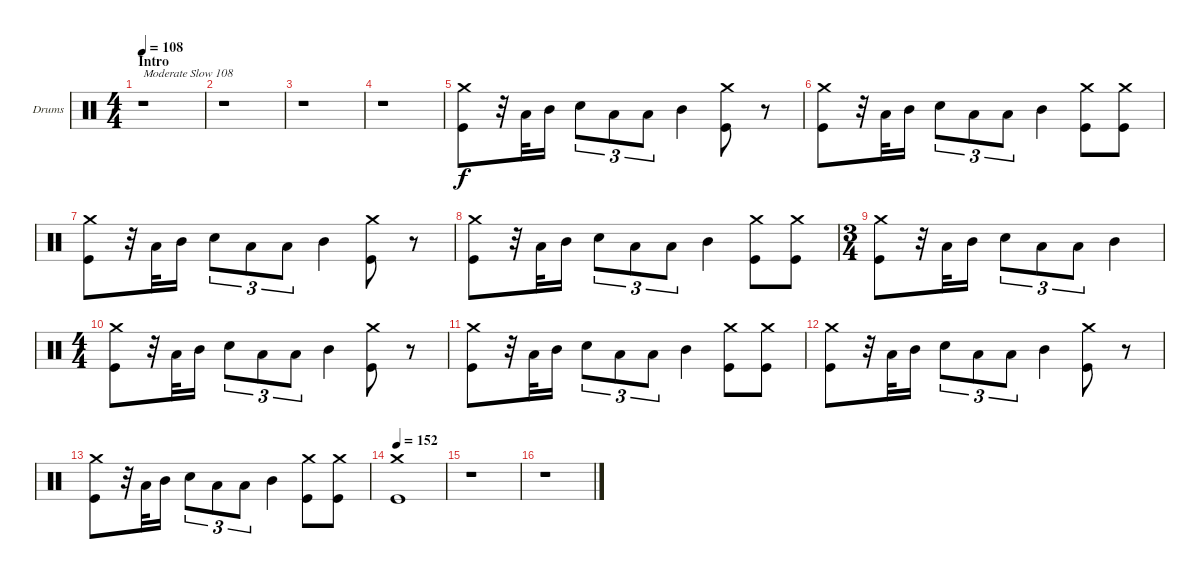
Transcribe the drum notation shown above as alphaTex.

\bracketExtendMode groupsimilarinstruments
\firstSystemTrackNameOrientation horizontal
\otherSystemsTrackNameOrientation horizontal
\track ("Drumkit" "Drums") {instrument percussion}
\staff {score}
\articulation defaults
\ts (4 4)
\section ("" "Intro")
\tempo 108
\clef neutral
\ks c
r.1{txt "Moderate Slow 108" dy f} |
r.1 |
r.1 |
r.1 |
("Crash medium (hit)" "Kick (hit)").8 r.32 "Low Tom (hit)".32 "Mid Tom (hit)".16 "Snare (hit) 2".8{tu (3 2)} "Low Tom (hit)".8{tu (3 2)} "Low Tom (hit)".8{tu (3 2)} "Mid Tom (hit)".4 ("Crash medium (hit)" "Kick (hit)").8 r.8 |
("Crash medium (hit)" "Kick (hit)").8 r.32 "Low Tom (hit)".32 "Mid Tom (hit)".16 "Snare (hit) 2".8{tu (3 2)} "Low Tom (hit)".8{tu (3 2)} "Low Tom (hit)".8{tu (3 2)} "Mid Tom (hit)".4 ("Crash medium (hit)" "Kick (hit)").8 ("Crash medium (hit)" "Kick (hit)").8 |
("Crash medium (hit)" "Kick (hit)").8 r.32 "Low Tom (hit)".32 "Mid Tom (hit)".16 "Snare (hit) 2".8{tu (3 2)} "Low Tom (hit)".8{tu (3 2)} "Low Tom (hit)".8{tu (3 2)} "Mid Tom (hit)".4 ("Crash medium (hit)" "Kick (hit)").8 r.8 |
("Crash medium (hit)" "Kick (hit)").8 r.32 "Low Tom (hit)".32 "Mid Tom (hit)".16 "Snare (hit) 2".8{tu (3 2)} "Low Tom (hit)".8{tu (3 2)} "Low Tom (hit)".8{tu (3 2)} "Mid Tom (hit)".4 ("Crash medium (hit)" "Kick (hit)").8 ("Crash medium (hit)" "Kick (hit)").8 |
\ts (3 4)
("Crash medium (hit)" "Kick (hit)").8 r.32 "Low Tom (hit)".32 "Mid Tom (hit)".16 "Snare (hit) 2".8{tu (3 2)} "Low Tom (hit)".8{tu (3 2)} "Low Tom (hit)".8{tu (3 2)} "Mid Tom (hit)".4 |
\ts (4 4)
("Crash medium (hit)" "Kick (hit)").8 r.32 "Low Tom (hit)".32 "Mid Tom (hit)".16 "Snare (hit) 2".8{tu (3 2)} "Low Tom (hit)".8{tu (3 2)} "Low Tom (hit)".8{tu (3 2)} "Mid Tom (hit)".4 ("Crash medium (hit)" "Kick (hit)").8 r.8 |
("Crash medium (hit)" "Kick (hit)").8 r.32 "Low Tom (hit)".32 "Mid Tom (hit)".16 "Snare (hit) 2".8{tu (3 2)} "Low Tom (hit)".8{tu (3 2)} "Low Tom (hit)".8{tu (3 2)} "Mid Tom (hit)".4 ("Crash medium (hit)" "Kick (hit)").8 ("Crash medium (hit)" "Kick (hit)").8 |
("Crash medium (hit)" "Kick (hit)").8 r.32 "Low Tom (hit)".32 "Mid Tom (hit)".16 "Snare (hit) 2".8{tu (3 2)} "Low Tom (hit)".8{tu (3 2)} "Low Tom (hit)".8{tu (3 2)} "Mid Tom (hit)".4 ("Crash medium (hit)" "Kick (hit)").8 r.8 |
("Crash medium (hit)" "Kick (hit)").8 r.32 "Low Tom (hit)".32 "Mid Tom (hit)".16 "Snare (hit) 2".8{tu (3 2)} "Low Tom (hit)".8{tu (3 2)} "Low Tom (hit)".8{tu (3 2)} "Mid Tom (hit)".4 ("Crash medium (hit)" "Kick (hit)").8 ("Crash medium (hit)" "Kick (hit)").8 |
\tempo 152
("Crash medium (hit)" "Kick (hit)").1 |
r.1 |
r.1
